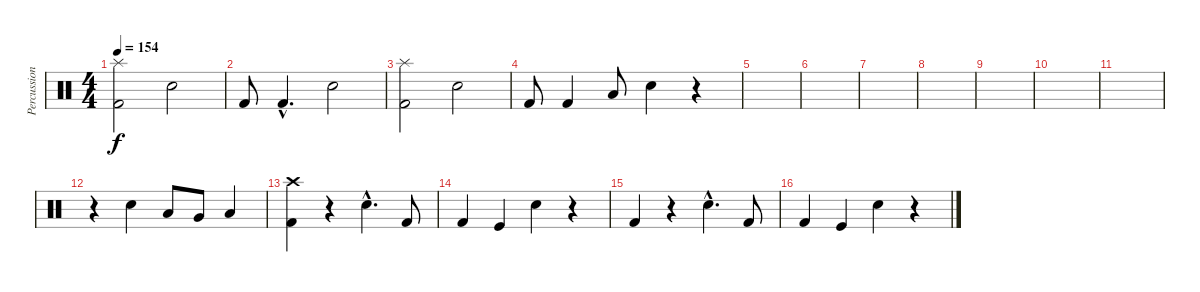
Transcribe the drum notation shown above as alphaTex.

\track ("Percussion" "Percussion") {instrument percussion}
\staff {score}
\articulation defaults
\ts (4 4)
\tempo 154
\clef neutral
\ks c
("Kick (hit) 2" "Splash (hit)").2{dy f} "Snare (hit) 2".2 |
"Kick (hit) 2".8 "Kick (hit) 2"{hac}.4{d} "Snare (hit) 2".2 |
("Kick (hit) 2" "Splash (hit)").2 "Snare (hit) 2".2 |
"Kick (hit) 2".8 "Kick (hit) 2".4 "Low Floor Tom (hit)".8 "Snare (hit) 2".4 r.4 |
|
|
|
|
|
|
|
r.4 "Snare (hit) 2".4 "Low Tom (hit)".8 "Very Low Tom (hit)".8 "Low Floor Tom (hit)".4 |
("Kick (hit) 2" "Crash high (hit)").4 r.4 "Snare (hit) 2"{hac}.4{d} "Kick (hit) 2".8 |
"Kick (hit) 2".4 "Kick (hit)".4 "Snare (hit) 2".4 r.4 |
"Kick (hit) 2".4 r.4 "Snare (hit) 2"{hac}.4{d} "Kick (hit) 2".8 |
"Kick (hit) 2".4 "Kick (hit)".4 "Snare (hit) 2".4 r.4
